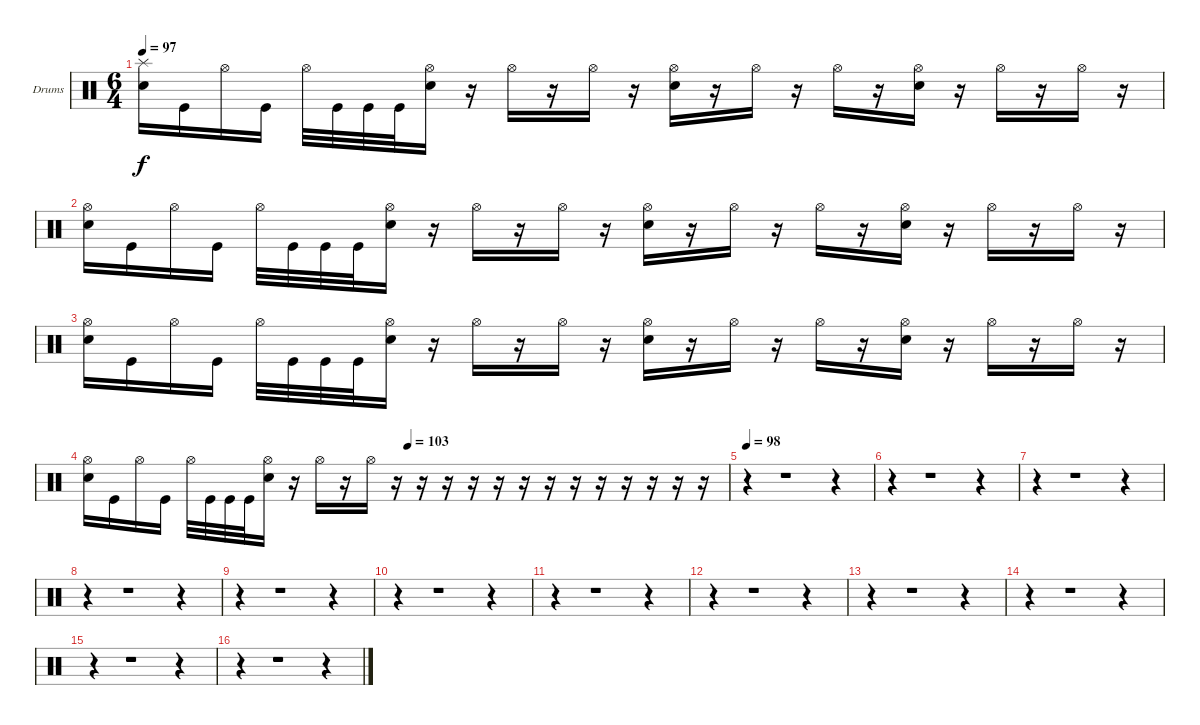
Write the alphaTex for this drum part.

\bracketExtendMode groupsimilarinstruments
\firstSystemTrackNameOrientation horizontal
\otherSystemsTrackNameOrientation horizontal
\track ("Drumkit" "Drums") {instrument percussion}
\staff {score}
\articulation defaults
\ts (6 4)
\tempo 97
\clef neutral
\ks c
("Splash (hit)" "Snare (hit) 2").16{dy f} "Kick (hit)".16 "Hi-Hat (open)".16 "Kick (hit)".16 "Hi-Hat (open)".32 "Kick (hit)".32 "Kick (hit)".32 "Kick (hit)".32 ("Hi-Hat (open)" "Snare (hit) 2").16 r.16 "Hi-Hat (open)".16 r.16 "Hi-Hat (open)".16 r.16 ("Hi-Hat (open)" "Snare (hit) 2").16 r.16 "Hi-Hat (open)".16 r.16 "Hi-Hat (open)".16 r.16 ("Hi-Hat (open)" "Snare (hit) 2").16 r.16 "Hi-Hat (open)".16 r.16 "Hi-Hat (open)".16 r.16 |
("Hi-Hat (open)" "Snare (hit) 2").16 "Kick (hit)".16 "Hi-Hat (open)".16 "Kick (hit)".16 "Hi-Hat (open)".32 "Kick (hit)".32 "Kick (hit)".32 "Kick (hit)".32 ("Hi-Hat (open)" "Snare (hit) 2").16 r.16 "Hi-Hat (open)".16 r.16 "Hi-Hat (open)".16 r.16 ("Hi-Hat (open)" "Snare (hit) 2").16 r.16 "Hi-Hat (open)".16 r.16 "Hi-Hat (open)".16 r.16 ("Hi-Hat (open)" "Snare (hit) 2").16 r.16 "Hi-Hat (open)".16 r.16 "Hi-Hat (open)".16 r.16 |
("Hi-Hat (open)" "Snare (hit) 2").16 "Kick (hit)".16 "Hi-Hat (open)".16 "Kick (hit)".16 "Hi-Hat (open)".32 "Kick (hit)".32 "Kick (hit)".32 "Kick (hit)".32 ("Hi-Hat (open)" "Snare (hit) 2").16 r.16 "Hi-Hat (open)".16 r.16 "Hi-Hat (open)".16 r.16 ("Hi-Hat (open)" "Snare (hit) 2").16 r.16 "Hi-Hat (open)".16 r.16 "Hi-Hat (open)".16 r.16 ("Hi-Hat (open)" "Snare (hit) 2").16 r.16 "Hi-Hat (open)".16 r.16 "Hi-Hat (open)".16 r.16 |
\tempo (103 0.5)
("Hi-Hat (open)" "Snare (hit) 2").16 "Kick (hit)".16 "Hi-Hat (open)".16 "Kick (hit)".16 "Hi-Hat (open)".32 "Kick (hit)".32 "Kick (hit)".32 "Kick (hit)".32 ("Hi-Hat (open)" "Snare (hit) 2").16 r.16 "Hi-Hat (open)".16 r.16 "Hi-Hat (open)".16 r.16 r.16 r.16 r.16 r.16 r.16 r.16 r.16 r.16 r.16 r.16 r.16 r.16 |
\tempo 98
r.4 r.1 r.4 |
r.4 r.1 r.4 |
r.4 r.1 r.4 |
r.4 r.1 r.4 |
r.4 r.1 r.4 |
r.4 r.1 r.4 |
r.4 r.1 r.4 |
r.4 r.1 r.4 |
r.4 r.1 r.4 |
r.4 r.1 r.4 |
r.4 r.1 r.4 |
r.4 r.1 r.4
